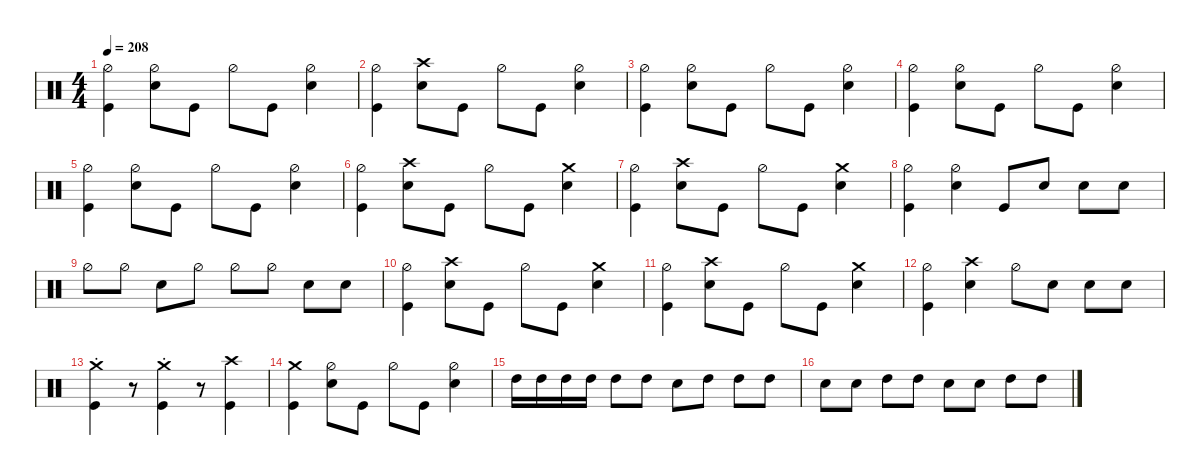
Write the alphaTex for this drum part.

\defaultSystemsLayout 4
\hideDynamics
\bracketExtendMode nobrackets
\singleTrackTrackNamePolicy hidden
\multiTrackTrackNamePolicy hidden
\otherSystemsTrackNameOrientation horizontal
\track ("Drums" "drm.") {multiBarRest instrument percussion}
\staff {score}
\articulation defaults
\ts (4 4)
\tempo 208
\clef neutral
\ks c
("Kick (hit)" "Hi-Hat (half)").4{dy f beam Down} ("Snare (hit) 2" "Hi-Hat (half)").8{beam Down} "Kick (hit)".8{beam Down} "Hi-Hat (half)".8{beam Down} "Kick (hit)".8{beam Down} ("Snare (hit) 2" "Hi-Hat (half)").4{beam Down} |
("Kick (hit)" "Hi-Hat (half)").4{beam Down} ("Snare (hit) 2" "Crash high (hit)").8{beam Down} "Kick (hit)".8{beam Down} "Hi-Hat (half)".8{beam Down} "Kick (hit)".8{beam Down} ("Snare (hit) 2" "Hi-Hat (half)").4{beam Down} |
("Kick (hit)" "Hi-Hat (half)").4{beam Down} ("Snare (hit) 2" "Hi-Hat (half)").8{beam Down} "Kick (hit)".8{beam Down} "Hi-Hat (half)".8{beam Down} "Kick (hit)".8{beam Down} ("Snare (hit) 2" "Hi-Hat (half)").4{beam Down} |
("Kick (hit)" "Hi-Hat (half)").4{beam Down} ("Snare (hit) 2" "Hi-Hat (half)").8{beam Down} "Kick (hit)".8{beam Down} "Hi-Hat (half)".8{beam Down} "Kick (hit)".8{beam Down} ("Snare (hit) 2" "Hi-Hat (half)").4{beam Down} |
("Kick (hit)" "Hi-Hat (half)").4{beam Down} ("Snare (hit) 2" "Hi-Hat (half)").8{beam Down} "Kick (hit)".8{beam Down} "Hi-Hat (half)".8{beam Down} "Kick (hit)".8{beam Down} ("Snare (hit) 2" "Hi-Hat (half)").4{beam Down} |
("Kick (hit)" "Hi-Hat (half)").4{beam Down} ("Snare (hit) 2" "Crash high (hit)").8{beam Down} "Kick (hit)".8{beam Down} "Hi-Hat (half)".8{beam Down} "Kick (hit)".8{beam Down} ("Snare (hit) 2" "Crash medium (hit)").4{beam Down} |
("Kick (hit)" "Hi-Hat (half)").4{beam Down} ("Snare (hit) 2" "Crash high (hit)").8{beam Down} "Kick (hit)".8{beam Down} "Hi-Hat (half)".8{beam Down} "Kick (hit)".8{beam Down} ("Snare (hit) 2" "Crash medium (hit)").4{beam Down} |
("Hi-Hat (half)" "Kick (hit)").4{beam Down} ("Hi-Hat (half)" "Snare (hit) 2").4{beam Down} "Kick (hit)".8{beam Up} "Snare (hit) 2".8{beam Up} "Snare (hit) 2".8{beam Down} "Snare (hit) 2".8{beam Down} |
"Hi-Hat (half)".8{beam Down} "Hi-Hat (half)".8{beam Down} "Snare (hit) 2".8{beam Down} "Hi-Hat (half)".8{beam Down} "Hi-Hat (half)".8{beam Down} "Hi-Hat (half)".8{beam Down} "Snare (hit) 2".8{beam Down} "Snare (hit) 2".8{beam Down} |
("Kick (hit)" "Hi-Hat (half)").4{beam Down} ("Snare (hit) 2" "Crash high (hit)").8{beam Down} "Kick (hit)".8{beam Down} "Hi-Hat (half)".8{beam Down} "Kick (hit)".8{beam Down} ("Snare (hit) 2" "Crash medium (hit)").4{beam Down} |
("Kick (hit)" "Hi-Hat (half)").4{beam Down} ("Snare (hit) 2" "Crash high (hit)").8{beam Down} "Kick (hit)".8{beam Down} "Hi-Hat (half)".8{beam Down} "Kick (hit)".8{beam Down} ("Snare (hit) 2" "Crash medium (hit)").4{beam Down} |
("Kick (hit)" "Hi-Hat (half)").4{beam Down} ("Snare (hit) 2" "Crash high (hit)").4{beam Down} "Hi-Hat (half)".8{beam Down} "Snare (hit) 2".8{beam Down} "Snare (hit) 2".8{beam Down} "Snare (hit) 2".8{beam Down} |
("Kick (hit)" "Crash medium (hit)"{st}).4{beam Down} r.8{beam Down} ("Kick (hit)" "Crash medium (hit)"{st}).4{beam Down} r.8{beam Down} ("Crash high (hit)" "Kick (hit)").4{beam Down} |
("Kick (hit)" "Crash medium (hit)").4{beam Down} ("Snare (hit) 2" "Hi-Hat (half)").8{beam Down} "Kick (hit)".8{beam Down} "Hi-Hat (half)".8{beam Down} "Kick (hit)".8{beam Down} ("Snare (hit) 2" "Hi-Hat (half)").4{beam Down} |
"High Tom (hit)".16{dy ff beam Down} "High Tom (hit)".16{beam Down} "High Tom (hit)".16{beam Down} "High Tom (hit)".16{beam Down} "High Tom (hit)".8{beam Down} "High Tom (hit)".8{beam Down} "Snare (hit) 2".8{dy f beam Down} "High Tom (hit)".8{dy ff beam Down} "High Tom (hit)".8{beam Down} "High Tom (hit)".8{beam Down} |
"Snare (hit) 2".8{dy f beam Down} "Snare (hit) 2".8{beam Down} "High Tom (hit)".8{dy ff beam Down} "High Tom (hit)".8{beam Down} "Snare (hit) 2".8{dy f beam Down} "Snare (hit) 2".8{beam Down} "High Tom (hit)".8{dy ff beam Down} "High Tom (hit)".8{beam Down}
